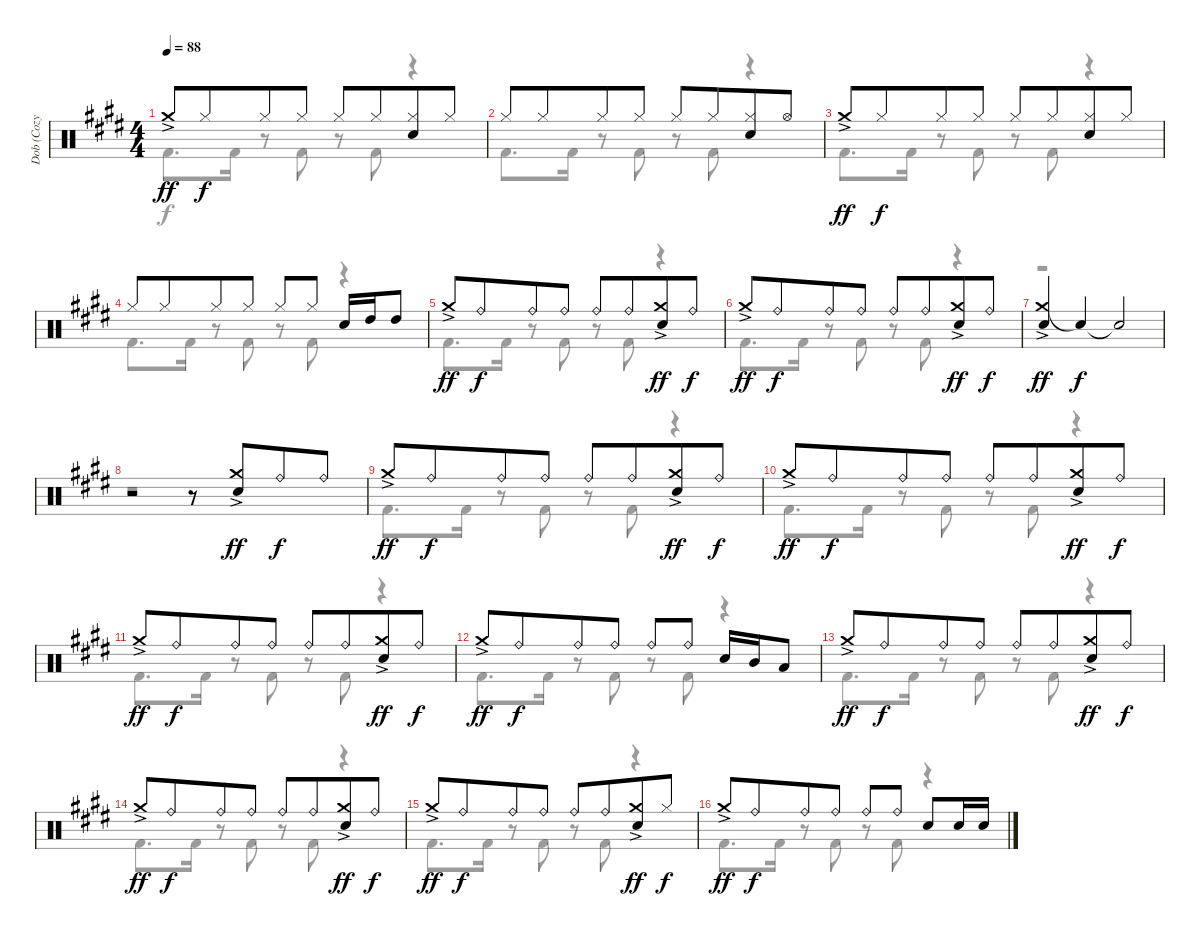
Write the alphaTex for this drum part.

\track ("Dob (Cozy Powell)" "Dob (Cozy ") {instrument percussion}
\staff {score}
\articulation defaults
\voice
\ts (4 4)
\tempo 88
\clef neutral
\ks e "Crash medium (hit)"{ac}.8{dy ff} "Hi-Hat (closed)".8{dy f beam merge} "Hi-Hat (closed)".8 "Hi-Hat (closed)".8 "Hi-Hat (closed)".8 "Hi-Hat (closed)".8{beam merge}
("Hi-Hat (closed)" "Electric Snare (hit)").8 "Hi-Hat (closed)".8 |
"Hi-Hat (closed)".8 "Hi-Hat (closed)".8{beam merge} "Hi-Hat (closed)".8 "Hi-Hat (closed)".8 "Hi-Hat (closed)".8 "Hi-Hat (closed)".8{beam merge} ("Hi-Hat (closed)" "Electric Snare (hit)").8 "Hi-Hat (open)".8 |
"Crash medium (hit)"{ac}.8{dy ff} "Hi-Hat (closed)".8{dy f beam merge} "Hi-Hat (closed)".8 "Hi-Hat (closed)".8 "Hi-Hat (closed)".8 "Hi-Hat (closed)".8{beam merge} ("Hi-Hat (closed)" "Electric Snare (hit)").8 "Hi-Hat (closed)".8 |
"Hi-Hat (closed)".8 "Hi-Hat (closed)".8{beam merge} "Hi-Hat (closed)".8 "Hi-Hat (closed)".8 "Hi-Hat (closed)".8 "Hi-Hat (closed)".8 "Electric Snare (hit)".16 "High Tom (hit)".16 "High Tom (hit)".8 |
"Crash medium (hit)"{ac}.8{dy ff} "Ride (bell)".8{dy f beam merge} "Ride (bell)".8 "Ride (bell)".8 "Ride (bell)".8 "Ride (bell)".8{beam merge} ("Crash medium (hit)"{ac} "Electric Snare (hit)").8{dy ff} "Ride (bell)".8{dy f} |
"Crash medium (hit)"{ac}.8{dy ff} "Ride (bell)".8{dy f beam merge} "Ride (bell)".8 "Ride (bell)".8 "Ride (bell)".8 "Ride (bell)".8{beam merge} ("Crash medium (hit)"{ac} "Electric Snare (hit)").8{dy ff} "Ride (bell)".8{dy f} |
("Crash medium (hit)"{ac} "Electric Snare (hit)").4{dy ff} "Snare (hit)"{t}.4{dy f} "Snare (hit)"{t}.2 |
r.2 r.8{beam merge} ("Crash medium (hit)"{ac} "Electric Snare (hit)").8{dy ff beam merge} "Ride (bell)".8{dy f beam merge} "Ride (bell)".8 |
"Crash medium (hit)"{ac}.8{dy ff} "Ride (bell)".8{dy f beam merge} "Ride (bell)".8 "Ride (bell)".8 "Ride (bell)".8 "Ride (bell)".8{beam merge} ("Crash medium (hit)"{ac} "Electric Snare (hit)").8{dy ff} "Ride (bell)".8{dy f} |
"Crash medium (hit)"{ac}.8{dy ff} "Ride (bell)".8{dy f beam merge} "Ride (bell)".8 "Ride (bell)".8 "Ride (bell)".8 "Ride (bell)".8{beam merge} ("Crash medium (hit)"{ac} "Electric Snare (hit)").8{dy ff} "Ride (bell)".8{dy f} |
"Crash medium (hit)"{ac}.8{dy ff} "Ride (bell)".8{dy f beam merge} "Ride (bell)".8 "Ride (bell)".8 "Ride (bell)".8 "Ride (bell)".8{beam merge} ("Crash medium (hit)"{ac} "Electric Snare (hit)").8{dy ff} "Ride (bell)".8{dy f} |
"Crash medium (hit)"{ac}.8{dy ff} "Ride (bell)".8{dy f beam merge} "Ride (bell)".8 "Ride (bell)".8 "Ride (bell)".8 "Ride (bell)".8 "Electric Snare (hit)".16 "Mid Tom (hit)".16 "Low Tom (hit)".8 |
"Crash medium (hit)"{ac}.8{dy ff} "Ride (bell)".8{dy f beam merge} "Ride (bell)".8 "Ride (bell)".8 "Ride (bell)".8 "Ride (bell)".8{beam merge} ("Crash medium (hit)"{ac} "Electric Snare (hit)").8{dy ff} "Ride (bell)".8{dy f} |
"Crash medium (hit)"{ac}.8{dy ff} "Ride (bell)".8{dy f beam merge} "Ride (bell)".8 "Ride (bell)".8 "Ride (bell)".8 "Ride (bell)".8{beam merge} ("Crash medium (hit)"{ac} "Electric Snare (hit)").8{dy ff} "Ride (bell)".8{dy f} |
"Crash medium (hit)"{ac}.8{dy ff} "Ride (bell)".8{dy f beam merge} "Ride (bell)".8 "Ride (bell)".8 "Ride (bell)".8 "Ride (bell)".8{beam merge} ("Crash medium (hit)"{ac} "Electric Snare (hit)").8{dy ff} "Hi-Hat (closed)".8{dy f} |
"Crash medium (hit)"{ac}.8{dy ff} "Ride (bell)".8{dy f beam merge} "Ride (bell)".8 "Ride (bell)".8 "Ride (bell)".8 "Ride (bell)".8 "Electric Snare (hit)".8 "Electric Snare (hit)".16 "Electric Snare (hit)".16
\voice
\clef neutral
\ottava regular
\simile none
\ks e "Kick (hit) 2".8{d dy f} "Kick (hit) 2".16
r.8 "Kick (hit) 2".8 r.8 "Kick (hit) 2".8 r.4 |
"Kick (hit) 2".8{d} "Kick (hit) 2".16 r.8 "Kick (hit) 2".8 r.8 "Kick (hit) 2".8 r.4 |
"Kick (hit) 2".8{d} "Kick (hit) 2".16 r.8 "Kick (hit) 2".8 r.8 "Kick (hit) 2".8 r.4 |
"Kick (hit) 2".8{d} "Kick (hit) 2".16 r.8 "Kick (hit) 2".8 r.8 "Kick (hit) 2".8 r.4 |
"Kick (hit) 2".8{d} "Kick (hit) 2".16 r.8 "Kick (hit) 2".8 r.8 "Kick (hit) 2".8 r.4 |
"Kick (hit) 2".8{d} "Kick (hit) 2".16 r.8 "Kick (hit) 2".8 r.8 "Kick (hit) 2".8 r.4 |
r.1 |
r.1 |
"Kick (hit) 2".8{d} "Kick (hit) 2".16 r.8 "Kick (hit) 2".8 r.8 "Kick (hit) 2".8 r.4 |
"Kick (hit) 2".8{d} "Kick (hit) 2".16 r.8 "Kick (hit) 2".8 r.8 "Kick (hit) 2".8 r.4 |
"Kick (hit) 2".8{d} "Kick (hit) 2".16 r.8 "Kick (hit) 2".8 r.8 "Kick (hit) 2".8 r.4 |
"Kick (hit) 2".8{d} "Kick (hit) 2".16 r.8 "Kick (hit) 2".8 r.8 "Kick (hit) 2".8 r.4 |
"Kick (hit) 2".8{d} "Kick (hit) 2".16 r.8 "Kick (hit) 2".8 r.8 "Kick (hit) 2".8 r.4 |
"Kick (hit) 2".8{d} "Kick (hit) 2".16 r.8 "Kick (hit) 2".8 r.8 "Kick (hit) 2".8 r.4 |
"Kick (hit) 2".8{d} "Kick (hit) 2".16 r.8 "Kick (hit) 2".8 r.8 "Kick (hit) 2".8 r.4 |
"Kick (hit) 2".8{d} "Kick (hit) 2".16 r.8 "Kick (hit) 2".8 r.8 "Kick (hit) 2".8 r.4
